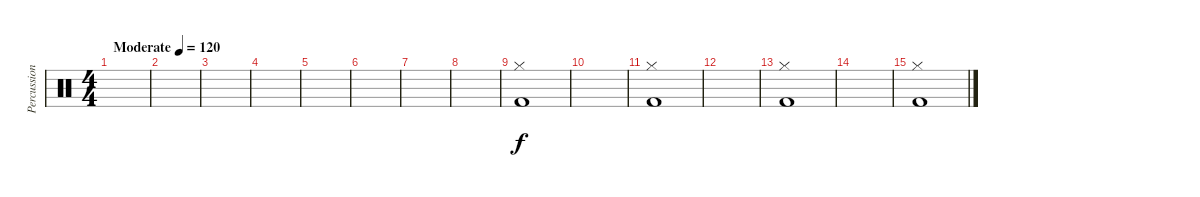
\track ("Percussion" "Percussion") {instrument percussion}
\staff {score}
\articulation defaults
\ts (4 4)
\tempo (120 "Moderate")
\clef neutral
\ks c
|
|
|
|
|
|
|
|
("Hi-Hat (closed)" "Kick (hit) 2").1 |
|
("Hi-Hat (closed)" "Kick (hit) 2").1 |
|
("Hi-Hat (closed)" "Kick (hit) 2").1 |
|
("Hi-Hat (closed)" "Kick (hit) 2").1
